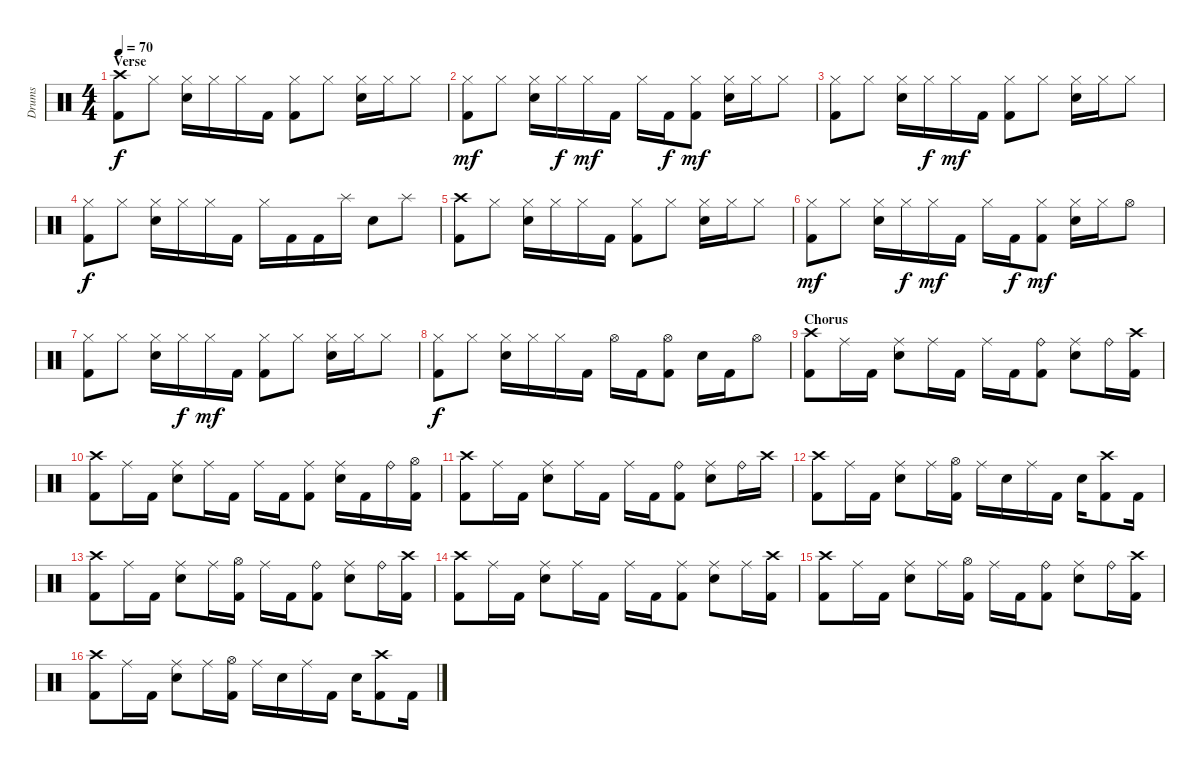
\track ("Drums" "Drums") {instrument percussion}
\staff {score}
\articulation defaults
\ts (4 4)
\section ("" "Verse")
\tempo 70
\clef neutral
\ks c
("Crash high (hit)" "Kick (hit) 2").8{dy f} "Hi-Hat (closed)".8 ("Hi-Hat (closed)" "Electric Snare (hit)").16 "Hi-Hat (closed)".16 "Hi-Hat (closed)".16 "Kick (hit) 2".16 ("Hi-Hat (closed)" "Kick (hit) 2").8 "Hi-Hat (closed)".8 ("Hi-Hat (closed)" "Electric Snare (hit)").16 "Hi-Hat (closed)".16 "Hi-Hat (closed)".8 |
("Hi-Hat (closed)" "Kick (hit) 2").8{dy mf} "Hi-Hat (closed)".8 ("Hi-Hat (closed)" "Electric Snare (hit)").16 "Hi-Hat (closed)".16{dy f} "Hi-Hat (closed)".16{dy mf} "Kick (hit) 2".16 "Hi-Hat (closed)".16 "Kick (hit) 2".16{dy f} ("Hi-Hat (closed)" "Kick (hit) 2").8{dy mf} ("Hi-Hat (closed)" "Electric Snare (hit)").16 "Hi-Hat (closed)".16 "Hi-Hat (closed)".8 |
("Hi-Hat (closed)" "Kick (hit) 2").8 "Hi-Hat (closed)".8 ("Hi-Hat (closed)" "Electric Snare (hit)").16 "Hi-Hat (closed)".16{dy f} "Hi-Hat (closed)".16{dy mf} "Kick (hit) 2".16 ("Hi-Hat (closed)" "Kick (hit) 2").8 "Hi-Hat (closed)".8 ("Hi-Hat (closed)" "Electric Snare (hit)").16 "Hi-Hat (closed)".16 "Hi-Hat (closed)".8 |
("Hi-Hat (closed)" "Kick (hit) 2").8{dy f} "Hi-Hat (closed)".8 ("Hi-Hat (closed)" "Electric Snare (hit)").16 "Hi-Hat (closed)".16 "Hi-Hat (closed)".16 "Kick (hit) 2".16 "Hi-Hat (closed)".16 "Kick (hit) 2".16 "Kick (hit) 2".16 "Splash (hit)".16 "Electric Snare (hit)".8 "Splash (hit)".8 |
("Crash high (hit)" "Kick (hit) 2").8 "Hi-Hat (closed)".8 ("Hi-Hat (closed)" "Electric Snare (hit)").16 "Hi-Hat (closed)".16 "Hi-Hat (closed)".16 "Kick (hit) 2".16 ("Hi-Hat (closed)" "Kick (hit) 2").8 "Hi-Hat (closed)".8 ("Hi-Hat (closed)" "Electric Snare (hit)").16 "Hi-Hat (closed)".16 "Hi-Hat (closed)".8 |
("Hi-Hat (closed)" "Kick (hit) 2").8{dy mf} "Hi-Hat (closed)".8 ("Hi-Hat (closed)" "Electric Snare (hit)").16 "Hi-Hat (closed)".16{dy f} "Hi-Hat (closed)".16{dy mf} "Kick (hit) 2".16 "Hi-Hat (closed)".16 "Kick (hit) 2".16{dy f} ("Hi-Hat (closed)" "Kick (hit) 2").8{dy mf} ("Hi-Hat (closed)" "Electric Snare (hit)").16 "Hi-Hat (closed)".16 "Hi-Hat (open)".8 |
("Hi-Hat (closed)" "Kick (hit) 2").8 "Hi-Hat (closed)".8 ("Hi-Hat (closed)" "Electric Snare (hit)").16 "Hi-Hat (closed)".16{dy f} "Hi-Hat (closed)".16{dy mf} "Kick (hit) 2".16 ("Hi-Hat (closed)" "Kick (hit) 2").8 "Hi-Hat (closed)".8 ("Hi-Hat (closed)" "Electric Snare (hit)").16 "Hi-Hat (closed)".16 "Hi-Hat (closed)".8 |
("Hi-Hat (closed)" "Kick (hit) 2").8{dy f} "Hi-Hat (closed)".8 ("Hi-Hat (closed)" "Electric Snare (hit)").16 "Hi-Hat (closed)".16 "Hi-Hat (closed)".16 "Kick (hit) 2".16 "Hi-Hat (open)".16 "Kick (hit) 2".16 ("Hi-Hat (open)" "Kick (hit) 2").8 "Electric Snare (hit)".16 "Kick (hit) 2".16 "Hi-Hat (open)".8 |
\section ("" "Chorus")
("Crash high (hit)" "Kick (hit) 2").8 "Ride (middle)".16 "Kick (hit) 2".16 ("Ride (middle)" "Electric Snare (hit)").8 "Ride (middle)".16 "Kick (hit) 2".16 "Ride (middle)".16 "Kick (hit) 2".16 ("Ride (bell)" "Kick (hit) 2").8 ("Ride (middle)" "Electric Snare (hit)").8 "Ride (bell)".16 ("Crash high (hit)" "Kick (hit) 2").16 |
("Crash high (hit)" "Kick (hit) 2").8 "Ride (middle)".16 "Kick (hit) 2".16 ("Ride (middle)" "Electric Snare (hit)").8 "Ride (middle)".16 "Kick (hit) 2".16 "Ride (middle)".16 "Kick (hit) 2".16 ("Ride (middle)" "Kick (hit) 2").8 ("Ride (middle)" "Electric Snare (hit)").16 "Kick (hit) 2".16 "Ride (bell)".16 ("Hi-Hat (open)" "Kick (hit) 2").16 |
("Crash high (hit)" "Kick (hit) 2").8 "Ride (middle)".16 "Kick (hit) 2".16 ("Ride (middle)" "Electric Snare (hit)").8 "Ride (middle)".16 "Kick (hit) 2".16 "Ride (middle)".16 "Kick (hit) 2".16 ("Ride (bell)" "Kick (hit) 2").8 ("Ride (middle)" "Electric Snare (hit)").8 "Ride (bell)".16 "Crash high (hit)".16 |
("Crash high (hit)" "Kick (hit) 2").8 "Ride (middle)".16 "Kick (hit) 2".16 ("Ride (middle)" "Electric Snare (hit)").8 "Ride (middle)".16 ("Hi-Hat (open)" "Kick (hit) 2").16 "Ride (middle)".16 "Electric Snare (hit)".16 "Ride (middle)".16 "Kick (hit) 2".16 "Electric Snare (hit)".16 ("Crash high (hit)" "Kick (hit) 2").8 "Kick (hit) 2".16 |
("Crash high (hit)" "Kick (hit) 2").8 "Ride (middle)".16 "Kick (hit) 2".16 ("Ride (middle)" "Electric Snare (hit)").8 "Ride (middle)".16 ("Hi-Hat (open)" "Kick (hit) 2").16 "Ride (middle)".16 "Kick (hit) 2".16 ("Ride (bell)" "Kick (hit) 2").8 ("Ride (middle)" "Electric Snare (hit)").8 "Ride (bell)".16 ("Crash high (hit)" "Kick (hit) 2").16 |
("Crash high (hit)" "Kick (hit) 2").8 "Ride (middle)".16 "Kick (hit) 2".16 ("Ride (middle)" "Electric Snare (hit)").8 "Ride (middle)".16 "Kick (hit) 2".16 "Ride (middle)".16 "Kick (hit) 2".16 ("Ride (middle)" "Kick (hit) 2").8 ("Ride (middle)" "Electric Snare (hit)").8 "Ride (middle)".16 ("Crash high (hit)" "Kick (hit) 2").16 |
("Crash high (hit)" "Kick (hit) 2").8 "Ride (middle)".16 "Kick (hit) 2".16 ("Ride (middle)" "Electric Snare (hit)").8 "Ride (middle)".16 ("Hi-Hat (open)" "Kick (hit) 2").16 "Ride (middle)".16 "Kick (hit) 2".16 ("Ride (bell)" "Kick (hit) 2").8 ("Ride (middle)" "Electric Snare (hit)").8 "Ride (bell)".16 ("Crash high (hit)" "Kick (hit) 2").16 |
("Crash high (hit)" "Kick (hit) 2").8 "Ride (middle)".16 "Kick (hit) 2".16 ("Ride (middle)" "Electric Snare (hit)").8 "Ride (middle)".16 ("Hi-Hat (open)" "Kick (hit) 2").16 "Ride (middle)".16 "Electric Snare (hit)".16 "Ride (middle)".16 "Kick (hit) 2".16 "Electric Snare (hit)".16 ("Crash high (hit)" "Kick (hit) 2").8 "Kick (hit) 2".16
